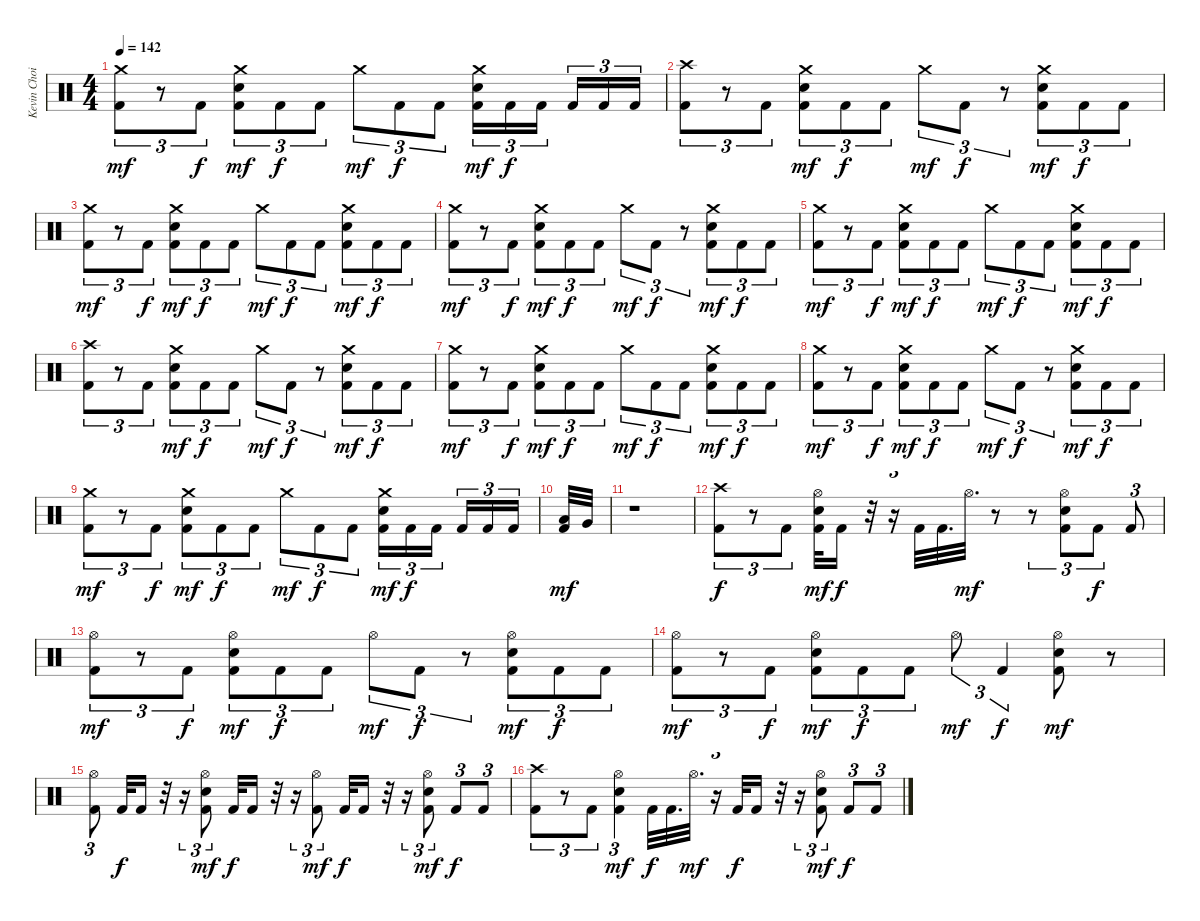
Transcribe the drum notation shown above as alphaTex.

\track ("Kevin Choiral" "Kevin Choi") {instrument percussion}
\staff
\articulation defaults
\ts (4 4)
\tempo 142
\clef neutral
\ks c
("Crash medium (hit)" "Kick (hit) 2").8{tu (3 2) dy mf} r.8{tu (3 2)} "Kick (hit) 2".8{tu (3 2) dy f} ("Crash medium (hit)" "Electric Snare (hit)" "Kick (hit) 2").8{tu (3 2) dy mf} "Kick (hit) 2".8{tu (3 2) dy f} "Kick (hit) 2".8{tu (3 2)} "Crash medium (hit)".8{tu (3 2) dy mf} "Kick (hit) 2".8{tu (3 2) dy f} "Kick (hit) 2".8{tu (3 2)} ("Crash medium (hit)" "Electric Snare (hit)" "Kick (hit) 2").16{tu (3 2) dy mf} "Kick (hit) 2".16{tu (3 2) dy f} "Kick (hit) 2".16{tu (3 2) beam splitsecondary} "Kick (hit) 2".16{tu (3 2)} "Kick (hit) 2".16{tu (3 2)} "Kick (hit) 2".16{tu (3 2)} |
("Crash high (hit)" "Kick (hit) 2").8{tu (3 2)} r.8{tu (3 2)} "Kick (hit) 2".8{tu (3 2)} ("Crash medium (hit)" "Electric Snare (hit)" "Kick (hit) 2").8{tu (3 2) dy mf} "Kick (hit) 2".8{tu (3 2) dy f} "Kick (hit) 2".8{tu (3 2)} "Crash medium (hit)".8{tu (3 2) dy mf} "Kick (hit) 2".8{tu (3 2) dy f} r.8{tu (3 2)} ("Crash medium (hit)" "Electric Snare (hit)" "Kick (hit) 2").8{tu (3 2) dy mf} "Kick (hit) 2".8{tu (3 2) dy f} "Kick (hit) 2".8{tu (3 2)} |
("Crash medium (hit)" "Kick (hit) 2").8{tu (3 2) dy mf} r.8{tu (3 2)} "Kick (hit) 2".8{tu (3 2) dy f} ("Crash medium (hit)" "Electric Snare (hit)" "Kick (hit) 2").8{tu (3 2) dy mf} "Kick (hit) 2".8{tu (3 2) dy f} "Kick (hit) 2".8{tu (3 2)} "Crash medium (hit)".8{tu (3 2) dy mf} "Kick (hit) 2".8{tu (3 2) dy f} "Kick (hit) 2".8{tu (3 2)} ("Crash medium (hit)" "Electric Snare (hit)" "Kick (hit) 2").8{tu (3 2) dy mf} "Kick (hit) 2".8{tu (3 2) dy f} "Kick (hit) 2".8{tu (3 2)} |
("Crash medium (hit)" "Kick (hit) 2").8{tu (3 2) dy mf} r.8{tu (3 2)} "Kick (hit) 2".8{tu (3 2) dy f} ("Crash medium (hit)" "Electric Snare (hit)" "Kick (hit) 2").8{tu (3 2) dy mf} "Kick (hit) 2".8{tu (3 2) dy f} "Kick (hit) 2".8{tu (3 2)} "Crash medium (hit)".8{tu (3 2) dy mf} "Kick (hit) 2".8{tu (3 2) dy f} r.8{tu (3 2)} ("Crash medium (hit)" "Electric Snare (hit)" "Kick (hit) 2").8{tu (3 2) dy mf} "Kick (hit) 2".8{tu (3 2) dy f} "Kick (hit) 2".8{tu (3 2)} |
("Crash medium (hit)" "Kick (hit) 2").8{tu (3 2) dy mf} r.8{tu (3 2)} "Kick (hit) 2".8{tu (3 2) dy f} ("Crash medium (hit)" "Electric Snare (hit)" "Kick (hit) 2").8{tu (3 2) dy mf} "Kick (hit) 2".8{tu (3 2) dy f} "Kick (hit) 2".8{tu (3 2)} "Crash medium (hit)".8{tu (3 2) dy mf} "Kick (hit) 2".8{tu (3 2) dy f} "Kick (hit) 2".8{tu (3 2)} ("Crash medium (hit)" "Electric Snare (hit)" "Kick (hit) 2").8{tu (3 2) dy mf} "Kick (hit) 2".8{tu (3 2) dy f} "Kick (hit) 2".8{tu (3 2)} |
("Crash high (hit)" "Kick (hit) 2").8{tu (3 2)} r.8{tu (3 2)} "Kick (hit) 2".8{tu (3 2)} ("Crash medium (hit)" "Electric Snare (hit)" "Kick (hit) 2").8{tu (3 2) dy mf} "Kick (hit) 2".8{tu (3 2) dy f} "Kick (hit) 2".8{tu (3 2)} "Crash medium (hit)".8{tu (3 2) dy mf} "Kick (hit) 2".8{tu (3 2) dy f} r.8{tu (3 2)} ("Crash medium (hit)" "Electric Snare (hit)" "Kick (hit) 2").8{tu (3 2) dy mf} "Kick (hit) 2".8{tu (3 2) dy f} "Kick (hit) 2".8{tu (3 2)} |
("Crash medium (hit)" "Kick (hit) 2").8{tu (3 2) dy mf} r.8{tu (3 2)} "Kick (hit) 2".8{tu (3 2) dy f} ("Crash medium (hit)" "Electric Snare (hit)" "Kick (hit) 2").8{tu (3 2) dy mf} "Kick (hit) 2".8{tu (3 2) dy f} "Kick (hit) 2".8{tu (3 2)} "Crash medium (hit)".8{tu (3 2) dy mf} "Kick (hit) 2".8{tu (3 2) dy f} "Kick (hit) 2".8{tu (3 2)} ("Crash medium (hit)" "Electric Snare (hit)" "Kick (hit) 2").8{tu (3 2) dy mf} "Kick (hit) 2".8{tu (3 2) dy f} "Kick (hit) 2".8{tu (3 2)} |
("Crash medium (hit)" "Kick (hit) 2").8{tu (3 2) dy mf} r.8{tu (3 2)} "Kick (hit) 2".8{tu (3 2) dy f} ("Crash medium (hit)" "Electric Snare (hit)" "Kick (hit) 2").8{tu (3 2) dy mf} "Kick (hit) 2".8{tu (3 2) dy f} "Kick (hit) 2".8{tu (3 2)} "Crash medium (hit)".8{tu (3 2) dy mf} "Kick (hit) 2".8{tu (3 2) dy f} r.8{tu (3 2)} ("Crash medium (hit)" "Electric Snare (hit)" "Kick (hit) 2").8{tu (3 2) dy mf} "Kick (hit) 2".8{tu (3 2) dy f} "Kick (hit) 2".8{tu (3 2)} |
("Crash medium (hit)" "Kick (hit) 2").8{tu (3 2) dy mf} r.8{tu (3 2)} "Kick (hit) 2".8{tu (3 2) dy f} ("Crash medium (hit)" "Electric Snare (hit)" "Kick (hit) 2").8{tu (3 2) dy mf} "Kick (hit) 2".8{tu (3 2) dy f} "Kick (hit) 2".8{tu (3 2)} "Crash medium (hit)".8{tu (3 2) dy mf} "Kick (hit) 2".8{tu (3 2) dy f} "Kick (hit) 2".8{tu (3 2)} ("Crash medium (hit)" "Electric Snare (hit)" "Kick (hit) 2").16{tu (3 2) dy mf} "Kick (hit) 2".16{tu (3 2) dy f} "Kick (hit) 2".16{tu (3 2) beam splitsecondary} "Kick (hit) 2".16{tu (3 2)} "Kick (hit) 2".16{tu (3 2)} "Kick (hit) 2".16{tu (3 2)} |
("Low Tom (hit)" "Kick (hit) 2").32{dy mf} "Very Low Tom (hit)".32 |
r.1 |
("Crash high (hit)" "Kick (hit) 2").8{tu (3 2) dy f} r.8{tu (3 2)} "Kick (hit) 2".8{tu (3 2)} ("Hi-Hat (open)" "Electric Snare (hit)" "Kick (hit) 2").32{dy mf} "Kick (hit) 2".16{dy f} r.32 r.16{tu (3 2)} "Kick (hit) 2".32 "Kick (hit) 2".32{d} "Hi-Hat (open)".32{d dy mf} r.8 r.8{tu (3 2)} ("Hi-Hat (open)" "Electric Snare (hit)" "Kick (hit) 2").8{tu (3 2)} "Kick (hit) 2".8{tu (3 2) dy f} "Kick (hit) 2".8{tu (3 2)} |
("Hi-Hat (open)" "Kick (hit) 2").8{tu (3 2) dy mf} r.8{tu (3 2)} "Kick (hit) 2".8{tu (3 2) dy f} ("Hi-Hat (open)" "Electric Snare (hit)" "Kick (hit) 2").8{tu (3 2) dy mf} "Kick (hit) 2".8{tu (3 2) dy f} "Kick (hit) 2".8{tu (3 2)} "Hi-Hat (open)".8{tu (3 2) dy mf} "Kick (hit) 2".8{tu (3 2) dy f} r.8{tu (3 2)} ("Hi-Hat (open)" "Electric Snare (hit)" "Kick (hit) 2").8{tu (3 2) dy mf} "Kick (hit) 2".8{tu (3 2) dy f} "Kick (hit) 2".8{tu (3 2)} |
("Hi-Hat (open)" "Kick (hit) 2").8{tu (3 2) dy mf} r.8{tu (3 2)} "Kick (hit) 2".8{tu (3 2) dy f} ("Hi-Hat (open)" "Electric Snare (hit)" "Kick (hit) 2").8{tu (3 2) dy mf} "Kick (hit) 2".8{tu (3 2) dy f} "Kick (hit) 2".8{tu (3 2)} "Hi-Hat (open)".8{tu (3 2) dy mf} "Kick (hit) 2".4{tu (3 2) dy f} ("Hi-Hat (open)" "Electric Snare (hit)" "Kick (hit) 2").8{dy mf} r.8 |
("Hi-Hat (open)" "Kick (hit) 2").8{tu (3 2)} "Kick (hit) 2".32{dy f} "Kick (hit) 2".16 r.32 r.16{tu (3 2)} ("Hi-Hat (open)" "Electric Snare (hit)" "Kick (hit) 2").8{tu (3 2) dy mf} "Kick (hit) 2".32{dy f} "Kick (hit) 2".16 r.32 r.16{tu (3 2)} ("Hi-Hat (open)" "Kick (hit) 2").8{tu (3 2) dy mf} "Kick (hit) 2".32{dy f} "Kick (hit) 2".16 r.32 r.16{tu (3 2)} ("Hi-Hat (open)" "Electric Snare (hit)" "Kick (hit) 2").8{tu (3 2) dy mf} "Kick (hit) 2".8{tu (3 2) dy f} "Kick (hit) 2".8{tu (3 2)} |
("Crash high (hit)" "Kick (hit) 2").8{tu (3 2)} r.8{tu (3 2)} "Kick (hit) 2".8{tu (3 2)} ("Hi-Hat (open)" "Electric Snare (hit)" "Kick (hit) 2").4{tu (3 2) dy mf} "Kick (hit) 2".32{dy f} "Kick (hit) 2".32{d} "Hi-Hat (open)".32{d dy mf} r.16{tu (3 2)} "Kick (hit) 2".32{dy f} "Kick (hit) 2".16 r.32 r.16{tu (3 2)} ("Hi-Hat (open)" "Electric Snare (hit)" "Kick (hit) 2").8{tu (3 2) dy mf} "Kick (hit) 2".8{tu (3 2) dy f} "Kick (hit) 2".8{tu (3 2)}
